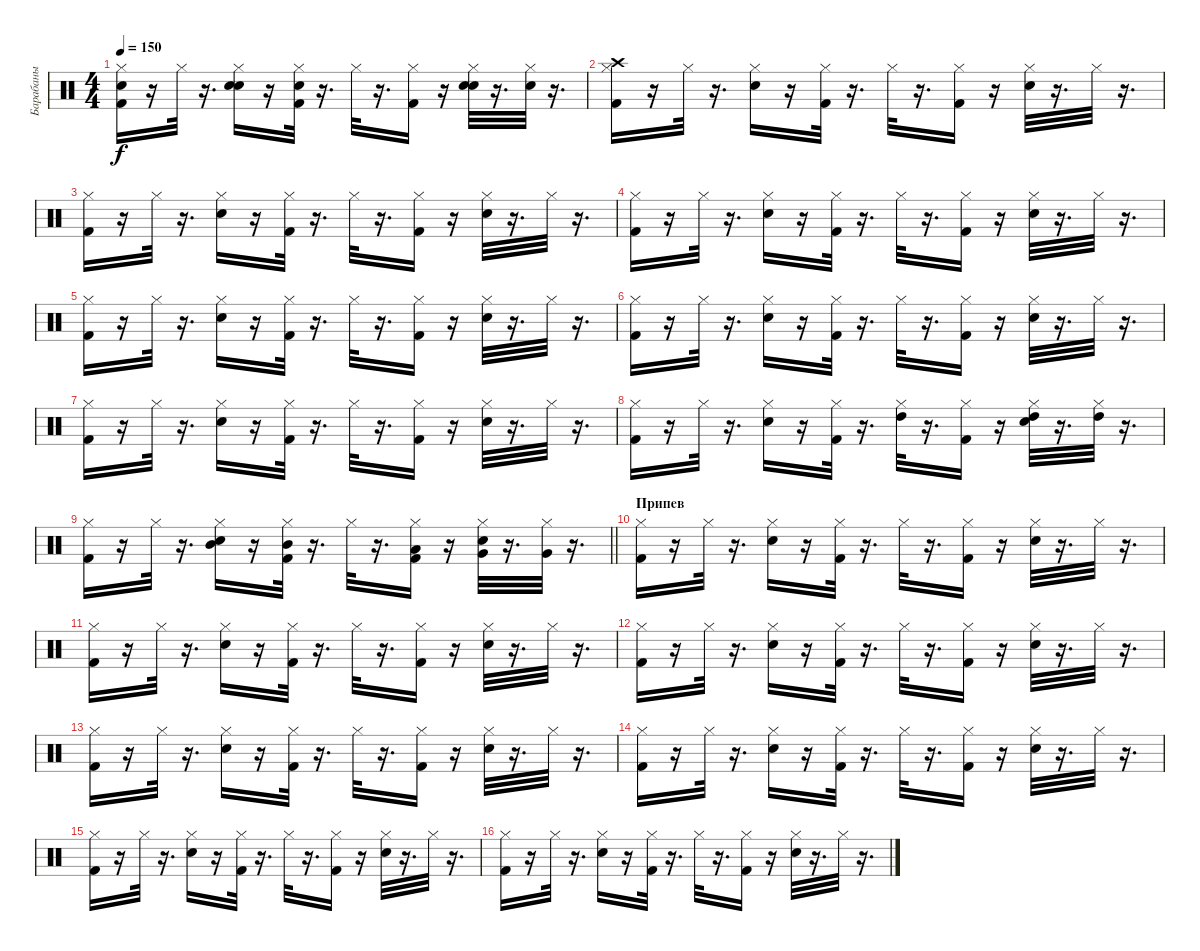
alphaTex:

\track ("Барабаны" "Барабаны") {instrument percussion}
\staff {score}
\articulation defaults
\ts (4 4)
\tempo 150
\clef neutral
\ks c
("Hand Clap (hit)" "Kick (hit) 2" "Hi-Hat (closed)").16{dy f} r.16 "Hi-Hat (closed)".32 r.16{d} ("Electric Snare (hit)" "Hi-Hat (closed)" "Hand Clap (hit)").16 r.16 ("Kick (hit) 2" "Hand Clap (hit)" "Hi-Hat (closed)").32 r.16{d} "Hi-Hat (closed)".32 r.16{d} ("Kick (hit) 2" "Hi-Hat (closed)").16 r.16 ("Electric Snare (hit)" "Hi-Hat (closed)" "Hand Clap (hit)").32 r.16{d} ("Hi-Hat (closed)" "Hand Clap (hit)").32 r.16{d} |
("Hi-Hat (closed)" "Crash high (hit)" "Kick (hit) 2").16 r.16 "Hi-Hat (closed)".32 r.16{d} ("Electric Snare (hit)" "Hi-Hat (closed)").16 r.16 ("Hi-Hat (closed)" "Kick (hit) 2").32 r.16{d} "Hi-Hat (closed)".32 r.16{d} ("Hi-Hat (closed)" "Kick (hit) 2").16 r.16 ("Electric Snare (hit)" "Hi-Hat (closed)").32 r.16{d} "Hi-Hat (closed)".32 r.16{d} |
("Hi-Hat (closed)" "Kick (hit) 2").16 r.16 "Hi-Hat (closed)".32 r.16{d} ("Electric Snare (hit)" "Hi-Hat (closed)").16 r.16 ("Kick (hit) 2" "Hi-Hat (closed)").32 r.16{d} "Hi-Hat (closed)".32 r.16{d} ("Kick (hit) 2" "Hi-Hat (closed)").16 r.16 ("Electric Snare (hit)" "Hi-Hat (closed)").32 r.16{d} "Hi-Hat (closed)".32 r.16{d} |
("Kick (hit) 2" "Hi-Hat (closed)").16 r.16 "Hi-Hat (closed)".32 r.16{d} ("Electric Snare (hit)" "Hi-Hat (closed)").16 r.16 ("Kick (hit) 2" "Hi-Hat (closed)").32 r.16{d} "Hi-Hat (closed)".32 r.16{d} ("Kick (hit) 2" "Hi-Hat (closed)").16 r.16 ("Electric Snare (hit)" "Hi-Hat (closed)").32 r.16{d} "Hi-Hat (closed)".32 r.16{d} |
("Kick (hit) 2" "Hi-Hat (closed)").16 r.16 "Hi-Hat (closed)".32 r.16{d} ("Electric Snare (hit)" "Hi-Hat (closed)").16 r.16 ("Kick (hit) 2" "Hi-Hat (closed)").32 r.16{d} "Hi-Hat (closed)".32 r.16{d} ("Kick (hit) 2" "Hi-Hat (closed)").16 r.16 ("Electric Snare (hit)" "Hi-Hat (closed)").32 r.16{d} "Hi-Hat (closed)".32 r.16{d} |
("Hi-Hat (closed)" "Kick (hit) 2").16 r.16 "Hi-Hat (closed)".32 r.16{d} ("Electric Snare (hit)" "Hi-Hat (closed)").16 r.16 ("Hi-Hat (closed)" "Kick (hit) 2").32 r.16{d} "Hi-Hat (closed)".32 r.16{d} ("Hi-Hat (closed)" "Kick (hit) 2").16 r.16 ("Hi-Hat (closed)" "Electric Snare (hit)").32 r.16{d} "Hi-Hat (closed)".32 r.16{d} |
("Hi-Hat (closed)" "Kick (hit) 2").16 r.16 "Hi-Hat (closed)".32 r.16{d} ("Electric Snare (hit)" "Hi-Hat (closed)").16 r.16 ("Kick (hit) 2" "Hi-Hat (closed)").32 r.16{d} "Hi-Hat (closed)".32 r.16{d} ("Kick (hit) 2" "Hi-Hat (closed)").16 r.16 ("Electric Snare (hit)" "Hi-Hat (closed)").32 r.16{d} "Hi-Hat (closed)".32 r.16{d} |
("Kick (hit) 2" "Hi-Hat (closed)").16 r.16 "Hi-Hat (closed)".32 r.16{d} ("Electric Snare (hit)" "Hi-Hat (closed)").16 r.16 ("Kick (hit) 2" "Hi-Hat (closed)").32 r.16{d} ("Hi-Hat (closed)" "High Tom (hit)").32 r.16{d} ("Kick (hit) 2" "Hi-Hat (closed)").16 r.16 ("Electric Snare (hit)" "High Tom (hit)" "Hi-Hat (closed)").32 r.16{d} ("Hi-Hat (closed)" "High Tom (hit)").32 r.16{d} |
\barLineRight lightlight
("Hi-Hat (closed)" "Kick (hit) 2").16 r.16 "Hi-Hat (closed)".32 r.16{d} ("Electric Snare (hit)" "Hi-Hat (closed)" "Mid Tom (hit)").16 r.16 ("Kick (hit) 2" "Mid Tom (hit)" "Hi-Hat (closed)").32 r.16{d} "Hi-Hat (closed)".32 r.16{d} ("Kick (hit) 2" "Low Tom (hit)" "Hi-Hat (closed)").16 r.16 ("Electric Snare (hit)" "Very Low Tom (hit)" "Hi-Hat (closed)").32 r.16{d} ("Very Low Tom (hit)" "Hi-Hat (closed)").32 r.16{d} |
\section ("" "Припев")
("Hi-Hat (closed)" "Kick (hit) 2").16 r.16 "Hi-Hat (closed)".32 r.16{d} ("Hi-Hat (closed)" "Electric Snare (hit)").16 r.16 ("Hi-Hat (closed)" "Kick (hit) 2").32 r.16{d} "Hi-Hat (closed)".32 r.16{d} ("Hi-Hat (closed)" "Kick (hit) 2").16 r.16 ("Hi-Hat (closed)" "Electric Snare (hit)").32 r.16{d} "Hi-Hat (closed)".32 r.16{d} |
("Hi-Hat (closed)" "Kick (hit) 2").16 r.16 "Hi-Hat (closed)".32 r.16{d} ("Electric Snare (hit)" "Hi-Hat (closed)").16 r.16 ("Kick (hit) 2" "Hi-Hat (closed)").32 r.16{d} "Hi-Hat (closed)".32 r.16{d} ("Kick (hit) 2" "Hi-Hat (closed)").16 r.16 ("Electric Snare (hit)" "Hi-Hat (closed)").32 r.16{d} "Hi-Hat (closed)".32 r.16{d} |
("Kick (hit) 2" "Hi-Hat (closed)").16 r.16 "Hi-Hat (closed)".32 r.16{d} ("Electric Snare (hit)" "Hi-Hat (closed)").16 r.16 ("Kick (hit) 2" "Hi-Hat (closed)").32 r.16{d} "Hi-Hat (closed)".32 r.16{d} ("Kick (hit) 2" "Hi-Hat (closed)").16 r.16 ("Electric Snare (hit)" "Hi-Hat (closed)").32 r.16{d} "Hi-Hat (closed)".32 r.16{d} |
("Kick (hit) 2" "Hi-Hat (closed)").16 r.16 "Hi-Hat (closed)".32 r.16{d} ("Electric Snare (hit)" "Hi-Hat (closed)").16 r.16 ("Kick (hit) 2" "Hi-Hat (closed)").32 r.16{d} "Hi-Hat (closed)".32 r.16{d} ("Kick (hit) 2" "Hi-Hat (closed)").16 r.16 ("Electric Snare (hit)" "Hi-Hat (closed)").32 r.16{d} "Hi-Hat (closed)".32 r.16{d} |
("Hi-Hat (closed)" "Kick (hit) 2").16 r.16 "Hi-Hat (closed)".32 r.16{d} ("Electric Snare (hit)" "Hi-Hat (closed)").16 r.16 ("Hi-Hat (closed)" "Kick (hit) 2").32 r.16{d} "Hi-Hat (closed)".32 r.16{d} ("Hi-Hat (closed)" "Kick (hit) 2").16 r.16 ("Hi-Hat (closed)" "Electric Snare (hit)").32 r.16{d} "Hi-Hat (closed)".32 r.16{d} |
("Kick (hit) 2" "Hi-Hat (closed)").16 r.16 "Hi-Hat (closed)".32 r.16{d} ("Electric Snare (hit)" "Hi-Hat (closed)").16 r.16 ("Kick (hit) 2" "Hi-Hat (closed)").32 r.16{d} "Hi-Hat (closed)".32 r.16{d} ("Kick (hit) 2" "Hi-Hat (closed)").16 r.16 ("Electric Snare (hit)" "Hi-Hat (closed)").32 r.16{d} "Hi-Hat (closed)".32 r.16{d} |
("Kick (hit) 2" "Hi-Hat (closed)").16 r.16 "Hi-Hat (closed)".32 r.16{d} ("Electric Snare (hit)" "Hi-Hat (closed)").16 r.16 ("Kick (hit) 2" "Hi-Hat (closed)").32 r.16{d} "Hi-Hat (closed)".32 r.16{d} ("Kick (hit) 2" "Hi-Hat (closed)").16 r.16 ("Electric Snare (hit)" "Hi-Hat (closed)").32 r.16{d} "Hi-Hat (closed)".32 r.16{d}
